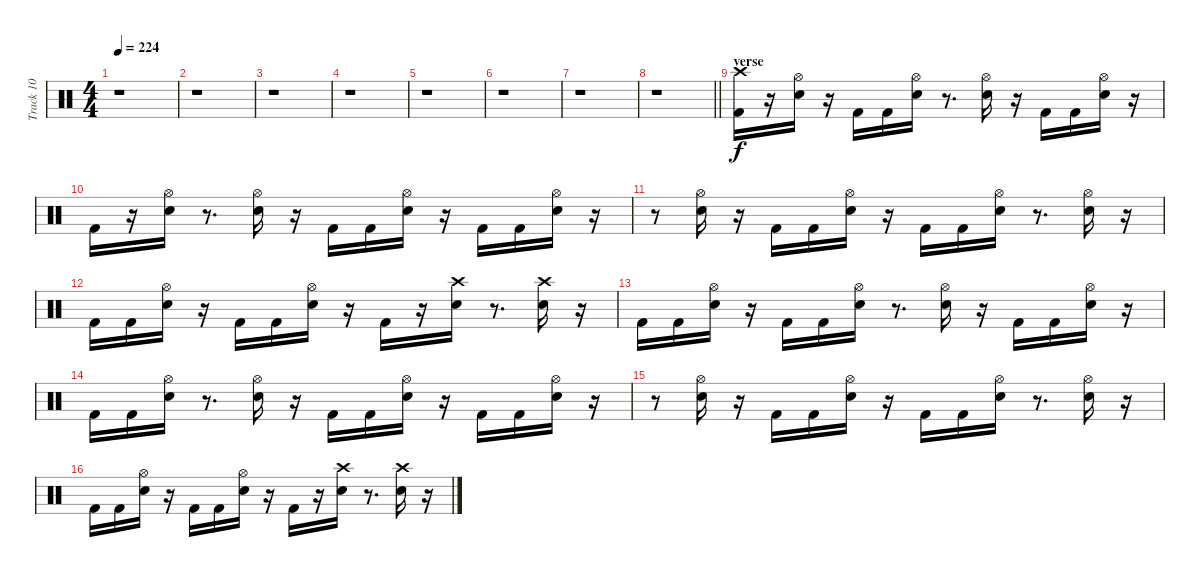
\track ("Track 10" "Track 10") {instrument percussion}
\staff {score}
\articulation defaults
\ts (4 4)
\tempo 224
\clef neutral
\ks c
r.1{dy f} |
r.1 |
r.1 |
r.1 |
r.1 |
r.1 |
r.1 |
\barLineRight lightlight
r.1 |
\section ("" "verse")
("Kick (hit) 2" "Crash high (hit)").16 r.16 ("Snare (hit) 2" "Hi-Hat (open)").16 r.16 "Kick (hit) 2".16 "Kick (hit) 2".16 ("Snare (hit) 2" "Hi-Hat (open)").16 r.8{d} ("Snare (hit) 2" "Hi-Hat (open)").16 r.16 "Kick (hit) 2".16 "Kick (hit) 2".16 ("Snare (hit) 2" "Hi-Hat (open)").16 r.16 |
"Kick (hit) 2".16 r.16 ("Snare (hit) 2" "Hi-Hat (open)").16 r.8{d} ("Snare (hit) 2" "Hi-Hat (open)").16 r.16 "Kick (hit) 2".16 "Kick (hit) 2".16 ("Snare (hit) 2" "Hi-Hat (open)").16 r.16 "Kick (hit) 2".16 "Kick (hit) 2".16 ("Snare (hit) 2" "Hi-Hat (open)").16 r.16 |
r.8 ("Snare (hit) 2" "Hi-Hat (open)").16 r.16 "Kick (hit) 2".16 "Kick (hit) 2".16 ("Snare (hit) 2" "Hi-Hat (open)").16 r.16 "Kick (hit) 2".16 "Kick (hit) 2".16 ("Snare (hit) 2" "Hi-Hat (open)").16 r.8{d} ("Snare (hit) 2" "Hi-Hat (open)").16 r.16 |
"Kick (hit) 2".16 "Kick (hit) 2".16 ("Snare (hit) 2" "Hi-Hat (open)").16 r.16 "Kick (hit) 2".16 "Kick (hit) 2".16 ("Snare (hit) 2" "Hi-Hat (open)").16 r.16 "Kick (hit) 2".16 r.16 ("Snare (hit) 2" "Crash high (hit)").16 r.8{d} ("Snare (hit) 2" "Crash high (hit)").16 r.16 |
"Kick (hit) 2".16 "Kick (hit) 2".16 ("Snare (hit) 2" "Hi-Hat (open)").16 r.16 "Kick (hit) 2".16 "Kick (hit) 2".16 ("Snare (hit) 2" "Hi-Hat (open)").16 r.8{d} ("Snare (hit) 2" "Hi-Hat (open)").16 r.16 "Kick (hit) 2".16 "Kick (hit) 2".16 ("Snare (hit) 2" "Hi-Hat (open)").16 r.16 |
"Kick (hit) 2".16 "Kick (hit) 2".16 ("Snare (hit) 2" "Hi-Hat (open)").16 r.8{d} ("Snare (hit) 2" "Hi-Hat (open)").16 r.16 "Kick (hit) 2".16 "Kick (hit) 2".16 ("Snare (hit) 2" "Hi-Hat (open)").16 r.16 "Kick (hit) 2".16 "Kick (hit) 2".16 ("Snare (hit) 2" "Hi-Hat (open)").16 r.16 |
r.8 ("Snare (hit) 2" "Hi-Hat (open)").16 r.16 "Kick (hit) 2".16 "Kick (hit) 2".16 ("Snare (hit) 2" "Hi-Hat (open)").16 r.16 "Kick (hit) 2".16 "Kick (hit) 2".16 ("Snare (hit) 2" "Hi-Hat (open)").16 r.8{d} ("Snare (hit) 2" "Hi-Hat (open)").16 r.16 |
"Kick (hit) 2".16 "Kick (hit) 2".16 ("Snare (hit) 2" "Hi-Hat (open)").16 r.16 "Kick (hit) 2".16 "Kick (hit) 2".16 ("Snare (hit) 2" "Hi-Hat (open)").16 r.16 "Kick (hit) 2".16 r.16 ("Snare (hit) 2" "Crash high (hit)").16 r.8{d} ("Snare (hit) 2" "Crash high (hit)").16 r.16
